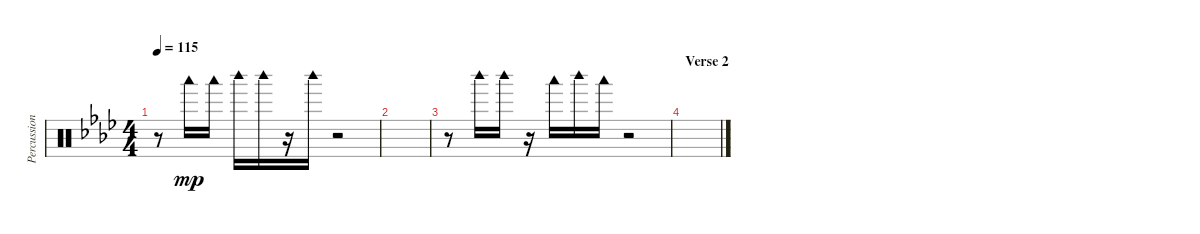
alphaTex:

\track ("Percussion" "Percussion") {instrument percussion}
\staff {score}
\articulation defaults
\ts (4 4)
\tempo 115
\clef neutral
\ks ab
r.8{dy mp} "Woodblock low (hit)".16 "Woodblock low (hit)".16 "Woodblock high (hit)".16 "Woodblock high (hit)".16 r.16 "Woodblock high (hit)".16 r.2 |
|
r.8 "Woodblock high (hit)".16 "Woodblock high (hit)".16 r.16 "Woodblock low (hit)".16 "Woodblock high (hit)".16 "Woodblock low (hit)".16 r.2 |
\section ("" "Verse 2")
